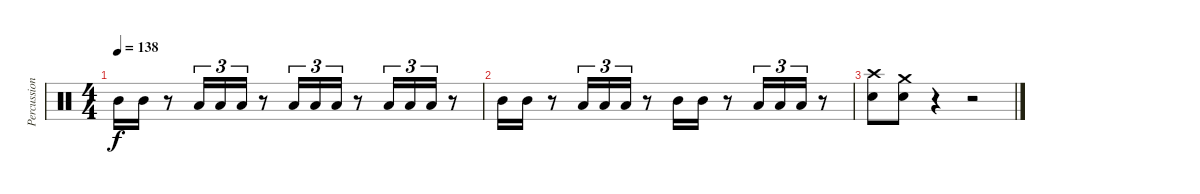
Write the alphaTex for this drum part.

\track ("Percussion" "Percussion") {instrument percussion}
\staff {score}
\articulation defaults
\ts (4 4)
\tempo 138
\clef neutral
\ks c "Mid Tom (hit)".16{dy f} "Mid Tom (hit)".16
r.8 "Low Tom (hit)".16{tu (3 2)} "Low Tom (hit)".16{tu (3 2)} "Low Tom (hit)".16{tu (3 2)} r.8 "Low Tom (hit)".16{tu (3 2)} "Low Tom (hit)".16{tu (3 2)} "Low Tom (hit)".16{tu (3 2)} r.8 "Low Tom (hit)".16{tu (3 2)} "Low Tom (hit)".16{tu (3 2)} "Low Tom (hit)".16{tu (3 2)} r.8 |
"Mid Tom (hit)".16 "Mid Tom (hit)".16 r.8 "Low Tom (hit)".16{tu (3 2)} "Low Tom (hit)".16{tu (3 2)} "Low Tom (hit)".16{tu (3 2)} r.8 "Mid Tom (hit)".16 "Mid Tom (hit)".16 r.8 "Low Tom (hit)".16{tu (3 2)} "Low Tom (hit)".16{tu (3 2)} "Low Tom (hit)".16{tu (3 2)} r.8 |
("Snare (hit) 2" "Crash high (hit)").8 ("Snare (hit) 2" "Crash medium (hit)").8 r.4 r.2
